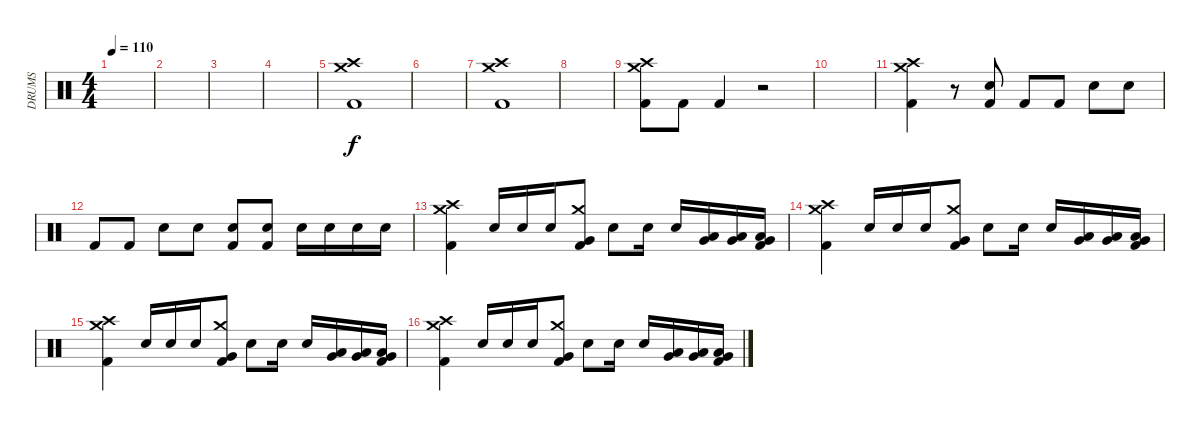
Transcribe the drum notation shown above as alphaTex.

\track ("DRUMS" "DRUMS") {instrument percussion}
\staff {score}
\articulation defaults
\ts (4 4)
\tempo 110
\clef neutral
\ks c
|
|
|
|
("Kick (hit) 2" "Crash medium (hit)" "Crash high (hit)").1 |
|
("Kick (hit) 2" "Crash medium (hit)" "Crash high (hit)").1 |
|
("Kick (hit) 2" "Crash medium (hit)" "Crash high (hit)").8 "Kick (hit) 2".8 "Kick (hit) 2".4 r.2 |
|
("Kick (hit) 2" "Crash medium (hit)" "Crash high (hit)").4 r.8 ("Kick (hit) 2" "Electric Snare (hit)").8 "Kick (hit) 2".8 "Kick (hit) 2".8 "Electric Snare (hit)".8 "Electric Snare (hit)".8 |
"Kick (hit) 2".8 "Kick (hit) 2".8 "Electric Snare (hit)".8 "Electric Snare (hit)".8 ("Electric Snare (hit)" "Kick (hit) 2").8 ("Electric Snare (hit)" "Kick (hit) 2").8 "Electric Snare (hit)".16 "Electric Snare (hit)".16 "Electric Snare (hit)".16 "Electric Snare (hit)".16 |
("Kick (hit) 2" "Crash medium (hit)" "Crash high (hit)").4 "Electric Snare (hit)".16 "Electric Snare (hit)".16 "Electric Snare (hit)".16 ("Very Low Tom (hit)" "Kick (hit) 2" "Crash medium (hit)").8 "Electric Snare (hit)".8 "Electric Snare (hit)".16 "Electric Snare (hit)".16 ("Very Low Tom (hit)" "Low Tom (hit)").16 ("Very Low Tom (hit)" "Low Tom (hit)").16 ("Very Low Tom (hit)" "Low Tom (hit)" "Kick (hit) 2").16 |
("Kick (hit) 2" "Crash medium (hit)" "Crash high (hit)").4 "Electric Snare (hit)".16 "Electric Snare (hit)".16 "Electric Snare (hit)".16 ("Very Low Tom (hit)" "Kick (hit) 2" "Crash medium (hit)").8 "Electric Snare (hit)".8 "Electric Snare (hit)".16 "Electric Snare (hit)".16 ("Very Low Tom (hit)" "Low Tom (hit)").16 ("Very Low Tom (hit)" "Low Tom (hit)").16 ("Very Low Tom (hit)" "Low Tom (hit)" "Kick (hit) 2").16 |
("Kick (hit) 2" "Crash medium (hit)" "Crash high (hit)").4 "Electric Snare (hit)".16 "Electric Snare (hit)".16 "Electric Snare (hit)".16 ("Very Low Tom (hit)" "Kick (hit) 2" "Crash medium (hit)").8 "Electric Snare (hit)".8 "Electric Snare (hit)".16 "Electric Snare (hit)".16 ("Very Low Tom (hit)" "Low Tom (hit)").16 ("Very Low Tom (hit)" "Low Tom (hit)").16 ("Very Low Tom (hit)" "Low Tom (hit)" "Kick (hit) 2").16 |
("Kick (hit) 2" "Crash medium (hit)" "Crash high (hit)").4 "Electric Snare (hit)".16 "Electric Snare (hit)".16 "Electric Snare (hit)".16 ("Very Low Tom (hit)" "Kick (hit) 2" "Crash medium (hit)").8 "Electric Snare (hit)".8 "Electric Snare (hit)".16 "Electric Snare (hit)".16 ("Very Low Tom (hit)" "Low Tom (hit)").16 ("Very Low Tom (hit)" "Low Tom (hit)").16 ("Very Low Tom (hit)" "Low Tom (hit)" "Kick (hit) 2").16
